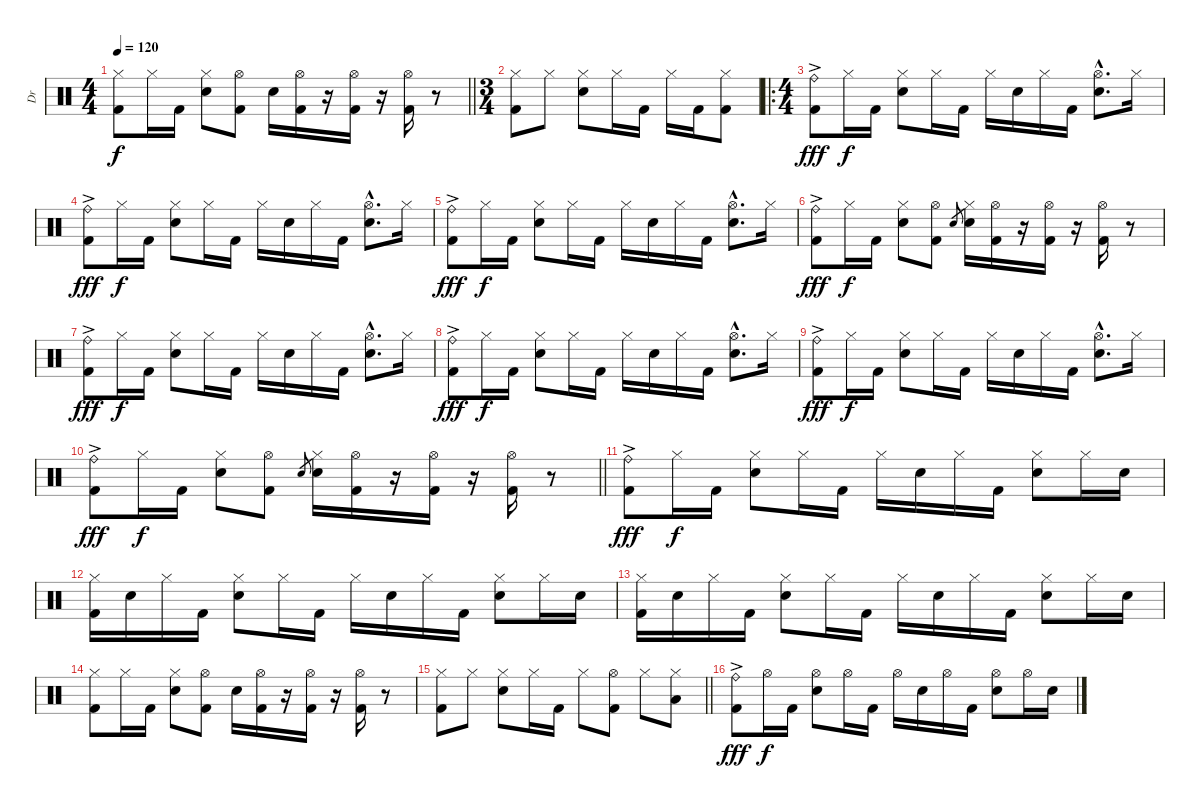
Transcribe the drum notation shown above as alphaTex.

\track ("Dr" "Dr") {instrument percussion}
\staff {score}
\articulation defaults
\ts (4 4)
\tempo 120
\clef neutral
\barLineRight lightlight
\ks c
("Hi-Hat (closed)" "Kick (hit) 2").8{dy f} "Hi-Hat (closed)".16 "Kick (hit) 2".16 ("Hi-Hat (closed)" "Electric Snare (hit)").8 ("Hi-Hat (open)" "Kick (hit) 2").8 "Electric Snare (hit)".16 ("Hi-Hat (open)" "Kick (hit) 2").16 r.16 ("Hi-Hat (open)" "Kick (hit) 2").16 r.16 ("Hi-Hat (open)" "Kick (hit) 2").16 r.8 |
\ts (3 4)
("Hi-Hat (closed)" "Kick (hit) 2").8 "Hi-Hat (closed)".8 ("Hi-Hat (closed)" "Electric Snare (hit)").8 "Hi-Hat (closed)".16 "Kick (hit) 2".16 "Hi-Hat (closed)".16 "Kick (hit) 2".16 ("Hi-Hat (closed)" "Kick (hit) 2").8 |
\ro
\ts (4 4)
("Ride (bell)"{ac} "Kick (hit) 2"{ac}).8{dy fff} "Hi-Hat (closed)".16{dy f} "Kick (hit) 2".16 ("Hi-Hat (closed)" "Electric Snare (hit)").8 "Hi-Hat (closed)".16 "Kick (hit) 2".16 "Hi-Hat (closed)".16 "Electric Snare (hit)".16 "Hi-Hat (closed)".16 "Kick (hit) 2".16 ("Hi-Hat (open)"{hac} "Electric Snare (hit)"{hac}).8{d} "Hi-Hat (closed)".16 |
("Ride (bell)"{ac} "Kick (hit) 2"{ac}).8{dy fff} "Hi-Hat (closed)".16{dy f} "Kick (hit) 2".16 ("Hi-Hat (closed)" "Electric Snare (hit)").8 "Hi-Hat (closed)".16 "Kick (hit) 2".16 "Hi-Hat (closed)".16 "Electric Snare (hit)".16 "Hi-Hat (closed)".16 "Kick (hit) 2".16 ("Hi-Hat (open)"{hac} "Electric Snare (hit)"{hac}).8{d} "Hi-Hat (closed)".16 |
("Ride (bell)"{ac} "Kick (hit) 2"{ac}).8{dy fff} "Hi-Hat (closed)".16{dy f} "Kick (hit) 2".16 ("Hi-Hat (closed)" "Electric Snare (hit)").8 "Hi-Hat (closed)".16 "Kick (hit) 2".16 "Hi-Hat (closed)".16 "Electric Snare (hit)".16 "Hi-Hat (closed)".16 "Kick (hit) 2".16 ("Hi-Hat (open)"{hac} "Electric Snare (hit)"{hac}).8{d} "Hi-Hat (closed)".16 |
("Ride (bell)"{ac} "Kick (hit) 2"{ac}).8{dy fff} "Hi-Hat (closed)".16{dy f} "Kick (hit) 2".16 ("Hi-Hat (closed)" "Electric Snare (hit)").8 ("Hi-Hat (open)" "Kick (hit) 2").8 "Electric Snare (hit)".8{gr} ("Hi-Hat (closed)" "Electric Snare (hit)").16 ("Hi-Hat (open)" "Kick (hit) 2").16 r.16 ("Hi-Hat (open)" "Kick (hit) 2").16 r.16 ("Hi-Hat (open)" "Kick (hit) 2").16 r.8 |
("Ride (bell)"{ac} "Kick (hit) 2"{ac}).8{dy fff} "Hi-Hat (closed)".16{dy f} "Kick (hit) 2".16 ("Hi-Hat (closed)" "Electric Snare (hit)").8 "Hi-Hat (closed)".16 "Kick (hit) 2".16 "Hi-Hat (closed)".16 "Electric Snare (hit)".16 "Hi-Hat (closed)".16 "Kick (hit) 2".16 ("Hi-Hat (open)"{hac} "Electric Snare (hit)"{hac}).8{d} "Hi-Hat (closed)".16 |
("Ride (bell)"{ac} "Kick (hit) 2"{ac}).8{dy fff} "Hi-Hat (closed)".16{dy f} "Kick (hit) 2".16 ("Hi-Hat (closed)" "Electric Snare (hit)").8 "Hi-Hat (closed)".16 "Kick (hit) 2".16 "Hi-Hat (closed)".16 "Electric Snare (hit)".16 "Hi-Hat (closed)".16 "Kick (hit) 2".16 ("Hi-Hat (open)"{hac} "Electric Snare (hit)"{hac}).8{d} "Hi-Hat (closed)".16 |
("Ride (bell)"{ac} "Kick (hit) 2"{ac}).8{dy fff} "Hi-Hat (closed)".16{dy f} "Kick (hit) 2".16 ("Hi-Hat (closed)" "Electric Snare (hit)").8 "Hi-Hat (closed)".16 "Kick (hit) 2".16 "Hi-Hat (closed)".16 "Electric Snare (hit)".16 "Hi-Hat (closed)".16 "Kick (hit) 2".16 ("Hi-Hat (open)"{hac} "Electric Snare (hit)"{hac}).8{d} "Hi-Hat (closed)".16 |
\barLineRight lightlight
("Ride (bell)"{ac} "Kick (hit) 2"{ac}).8{dy fff} "Hi-Hat (closed)".16{dy f} "Kick (hit) 2".16 ("Hi-Hat (closed)" "Electric Snare (hit)").8 ("Hi-Hat (open)" "Kick (hit) 2").8 "Electric Snare (hit)".8{gr} ("Hi-Hat (closed)" "Electric Snare (hit)").16 ("Hi-Hat (open)" "Kick (hit) 2").16 r.16 ("Hi-Hat (open)" "Kick (hit) 2").16 r.16 ("Hi-Hat (open)" "Kick (hit) 2").16 r.8 |
("Ride (bell)"{ac} "Kick (hit) 2"{ac}).8{dy fff} "Hi-Hat (closed)".16{dy f} "Kick (hit) 2".16 ("Hi-Hat (closed)" "Electric Snare (hit)").8 "Hi-Hat (closed)".16 "Kick (hit) 2".16 "Hi-Hat (closed)".16 "Electric Snare (hit)".16 "Hi-Hat (closed)".16 "Kick (hit) 2".16 ("Hi-Hat (closed)" "Electric Snare (hit)").8 "Hi-Hat (closed)".16 "Electric Snare (hit)".16 |
("Hi-Hat (closed)" "Kick (hit) 2").16 "Electric Snare (hit)".16 "Hi-Hat (closed)".16 "Kick (hit) 2".16 ("Hi-Hat (closed)" "Electric Snare (hit)").8 "Hi-Hat (closed)".16 "Kick (hit) 2".16 "Hi-Hat (closed)".16 "Electric Snare (hit)".16 "Hi-Hat (closed)".16 "Kick (hit) 2".16 ("Hi-Hat (closed)" "Electric Snare (hit)").8 "Hi-Hat (closed)".16 "Electric Snare (hit)".16 |
("Hi-Hat (closed)" "Kick (hit) 2").16 "Electric Snare (hit)".16 "Hi-Hat (closed)".16 "Kick (hit) 2".16 ("Hi-Hat (closed)" "Electric Snare (hit)").8 "Hi-Hat (closed)".16 "Kick (hit) 2".16 "Hi-Hat (closed)".16 "Electric Snare (hit)".16 "Hi-Hat (closed)".16 "Kick (hit) 2".16 ("Hi-Hat (closed)" "Electric Snare (hit)").8 "Hi-Hat (closed)".16 "Electric Snare (hit)".16 |
("Hi-Hat (closed)" "Kick (hit) 2").8 "Hi-Hat (closed)".16 "Kick (hit) 2".16 ("Hi-Hat (closed)" "Electric Snare (hit)").8 ("Hi-Hat (open)" "Kick (hit) 2").8 "Electric Snare (hit)".16 ("Hi-Hat (open)" "Kick (hit) 2").16 r.16 ("Hi-Hat (open)" "Kick (hit) 2").16 r.16 ("Hi-Hat (open)" "Kick (hit) 2").16 r.8 |
\barLineRight lightlight
("Hi-Hat (closed)" "Kick (hit) 2").8 "Hi-Hat (closed)".8 ("Hi-Hat (closed)" "Electric Snare (hit)").8 "Hi-Hat (closed)".16 "Kick (hit) 2".16 "Hi-Hat (closed)".8 ("Hi-Hat (open)" "Kick (hit) 2").8 "Hi-Hat (closed)".8 ("Hi-Hat (closed)" "Low Tom (hit)").8 |
("Ride (bell)"{ac} "Kick (hit) 2"{ac}).8{dy fff} "Hi-Hat (open)".16{dy f} "Kick (hit) 2".16 ("Hi-Hat (open)" "Electric Snare (hit)").8 "Hi-Hat (open)".16 "Kick (hit) 2".16 "Hi-Hat (open)".16 "Electric Snare (hit)".16 "Hi-Hat (open)".16 "Kick (hit) 2".16 ("Hi-Hat (open)" "Electric Snare (hit)").8 "Hi-Hat (open)".16 "Electric Snare (hit)".16
